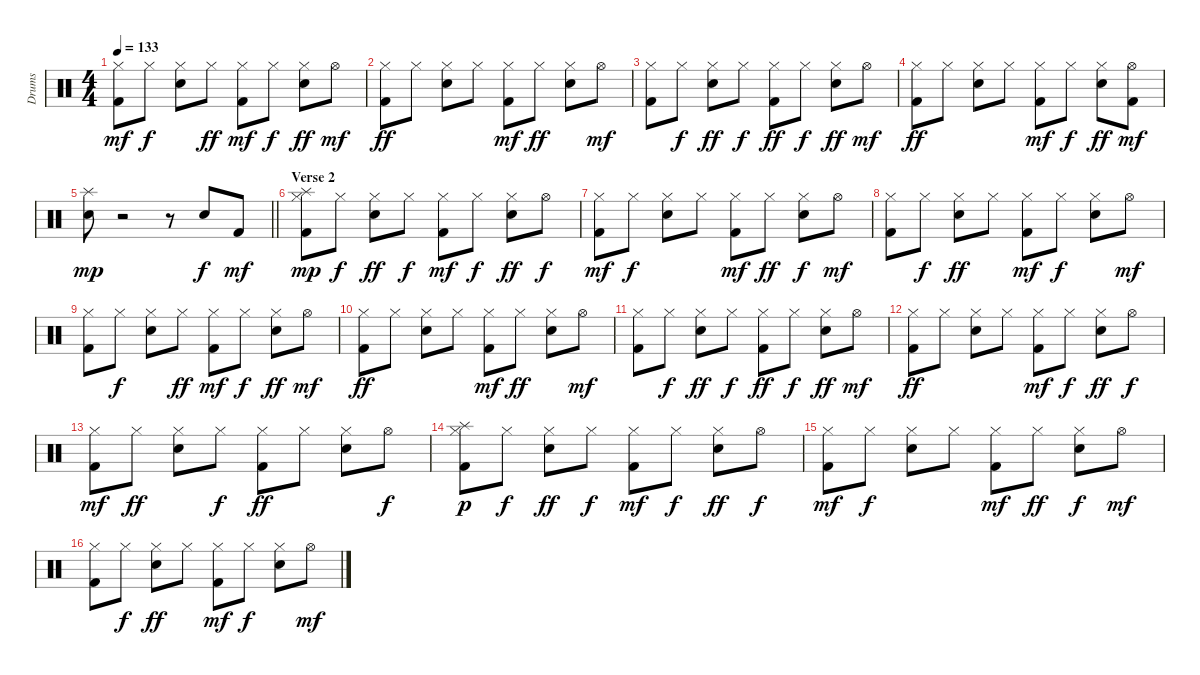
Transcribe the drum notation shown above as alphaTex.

\track ("Drums   " "Drums   ") {instrument percussion}
\staff {score}
\articulation defaults
\ts (4 4)
\tempo 133
\clef neutral
\ks c
("Kick (hit) 2" "Hi-Hat (closed)").8{dy mf} "Hi-Hat (closed)".8{dy f} ("Electric Snare (hit)" "Hi-Hat (closed)").8 "Hi-Hat (closed)".8{dy ff} ("Kick (hit) 2" "Hi-Hat (closed)").8{dy mf} "Hi-Hat (closed)".8{dy f} ("Electric Snare (hit)" "Hi-Hat (closed)").8{dy ff} "Hi-Hat (open)".8{dy mf} |
("Kick (hit) 2" "Hi-Hat (closed)").8{dy ff} "Hi-Hat (closed)".8 ("Electric Snare (hit)" "Hi-Hat (closed)").8 "Hi-Hat (closed)".8 ("Kick (hit) 2" "Hi-Hat (closed)").8{dy mf} "Hi-Hat (closed)".8{dy ff} ("Electric Snare (hit)" "Hi-Hat (closed)").8 "Hi-Hat (open)".8{dy mf} |
("Kick (hit) 2" "Hi-Hat (closed)").8 "Hi-Hat (closed)".8{dy f} ("Electric Snare (hit)" "Hi-Hat (closed)").8{dy ff} "Hi-Hat (closed)".8{dy f} ("Kick (hit) 2" "Hi-Hat (closed)").8{dy ff} "Hi-Hat (closed)".8{dy f} ("Electric Snare (hit)" "Hi-Hat (closed)").8{dy ff} "Hi-Hat (open)".8{dy mf} |
("Kick (hit) 2" "Hi-Hat (closed)").8{dy ff} "Hi-Hat (closed)".8 ("Electric Snare (hit)" "Hi-Hat (closed)").8 "Hi-Hat (closed)".8 ("Kick (hit) 2" "Hi-Hat (closed)").8{dy mf} "Hi-Hat (closed)".8{dy f} ("Electric Snare (hit)" "Hi-Hat (closed)").8{dy ff} ("Kick (hit) 2" "Hi-Hat (open)").8{dy mf} |
\barLineRight lightlight
("Electric Snare (hit)" "Splash (hit)").8{dy mp} r.2 r.8 "Electric Snare (hit)".8{dy f} "Kick (hit) 2".8{dy mf} |
\section ("" "Verse 2")
("Kick (hit) 2" "Hi-Hat (closed)" "Splash (hit)").8{dy mp} "Hi-Hat (closed)".8{dy f} ("Electric Snare (hit)" "Hi-Hat (closed)").8{dy ff} "Hi-Hat (closed)".8{dy f} ("Kick (hit) 2" "Hi-Hat (closed)").8{dy mf} "Hi-Hat (closed)".8{dy f} ("Electric Snare (hit)" "Hi-Hat (closed)").8{dy ff} "Hi-Hat (open)".8{dy f} |
("Kick (hit) 2" "Hi-Hat (closed)").8{dy mf} "Hi-Hat (closed)".8{dy f} ("Electric Snare (hit)" "Hi-Hat (closed)").8 "Hi-Hat (closed)".8 ("Kick (hit) 2" "Hi-Hat (closed)").8{dy mf} "Hi-Hat (closed)".8{dy ff} ("Electric Snare (hit)" "Hi-Hat (closed)").8{dy f} "Hi-Hat (open)".8{dy mf} |
("Kick (hit) 2" "Hi-Hat (closed)").8 "Hi-Hat (closed)".8{dy f} ("Electric Snare (hit)" "Hi-Hat (closed)").8{dy ff} "Hi-Hat (closed)".8 ("Kick (hit) 2" "Hi-Hat (closed)").8{dy mf} "Hi-Hat (closed)".8{dy f} ("Electric Snare (hit)" "Hi-Hat (closed)").8 "Hi-Hat (open)".8{dy mf} |
("Kick (hit) 2" "Hi-Hat (closed)").8 "Hi-Hat (closed)".8{dy f} ("Electric Snare (hit)" "Hi-Hat (closed)").8 "Hi-Hat (closed)".8{dy ff} ("Kick (hit) 2" "Hi-Hat (closed)").8{dy mf} "Hi-Hat (closed)".8{dy f} ("Electric Snare (hit)" "Hi-Hat (closed)").8{dy ff} "Hi-Hat (open)".8{dy mf} |
("Kick (hit) 2" "Hi-Hat (closed)").8{dy ff} "Hi-Hat (closed)".8 ("Electric Snare (hit)" "Hi-Hat (closed)").8 "Hi-Hat (closed)".8 ("Kick (hit) 2" "Hi-Hat (closed)").8{dy mf} "Hi-Hat (closed)".8{dy ff} ("Electric Snare (hit)" "Hi-Hat (closed)").8 "Hi-Hat (open)".8{dy mf} |
("Kick (hit) 2" "Hi-Hat (closed)").8 "Hi-Hat (closed)".8{dy f} ("Electric Snare (hit)" "Hi-Hat (closed)").8{dy ff} "Hi-Hat (closed)".8{dy f} ("Kick (hit) 2" "Hi-Hat (closed)").8{dy ff} "Hi-Hat (closed)".8{dy f} ("Electric Snare (hit)" "Hi-Hat (closed)").8{dy ff} "Hi-Hat (open)".8{dy mf} |
("Kick (hit) 2" "Hi-Hat (closed)").8{dy ff} "Hi-Hat (closed)".8 ("Electric Snare (hit)" "Hi-Hat (closed)").8 "Hi-Hat (closed)".8 ("Kick (hit) 2" "Hi-Hat (closed)").8{dy mf} "Hi-Hat (closed)".8{dy f} ("Electric Snare (hit)" "Hi-Hat (closed)").8{dy ff} "Hi-Hat (open)".8{dy f} |
("Kick (hit) 2" "Hi-Hat (closed)").8{dy mf} "Hi-Hat (closed)".8{dy ff} ("Electric Snare (hit)" "Hi-Hat (closed)").8 "Hi-Hat (closed)".8{dy f} ("Kick (hit) 2" "Hi-Hat (closed)").8{dy ff} "Hi-Hat (closed)".8 ("Electric Snare (hit)" "Hi-Hat (closed)").8 "Hi-Hat (open)".8{dy f} |
("Kick (hit) 2" "Hi-Hat (closed)" "Splash (hit)").8{dy p} "Hi-Hat (closed)".8{dy f} ("Electric Snare (hit)" "Hi-Hat (closed)").8{dy ff} "Hi-Hat (closed)".8{dy f} ("Kick (hit) 2" "Hi-Hat (closed)").8{dy mf} "Hi-Hat (closed)".8{dy f} ("Electric Snare (hit)" "Hi-Hat (closed)").8{dy ff} "Hi-Hat (open)".8{dy f} |
("Kick (hit) 2" "Hi-Hat (closed)").8{dy mf} "Hi-Hat (closed)".8{dy f} ("Electric Snare (hit)" "Hi-Hat (closed)").8 "Hi-Hat (closed)".8 ("Kick (hit) 2" "Hi-Hat (closed)").8{dy mf} "Hi-Hat (closed)".8{dy ff} ("Electric Snare (hit)" "Hi-Hat (closed)").8{dy f} "Hi-Hat (open)".8{dy mf} |
("Kick (hit) 2" "Hi-Hat (closed)").8 "Hi-Hat (closed)".8{dy f} ("Electric Snare (hit)" "Hi-Hat (closed)").8{dy ff} "Hi-Hat (closed)".8 ("Kick (hit) 2" "Hi-Hat (closed)").8{dy mf} "Hi-Hat (closed)".8{dy f} ("Electric Snare (hit)" "Hi-Hat (closed)").8 "Hi-Hat (open)".8{dy mf}
